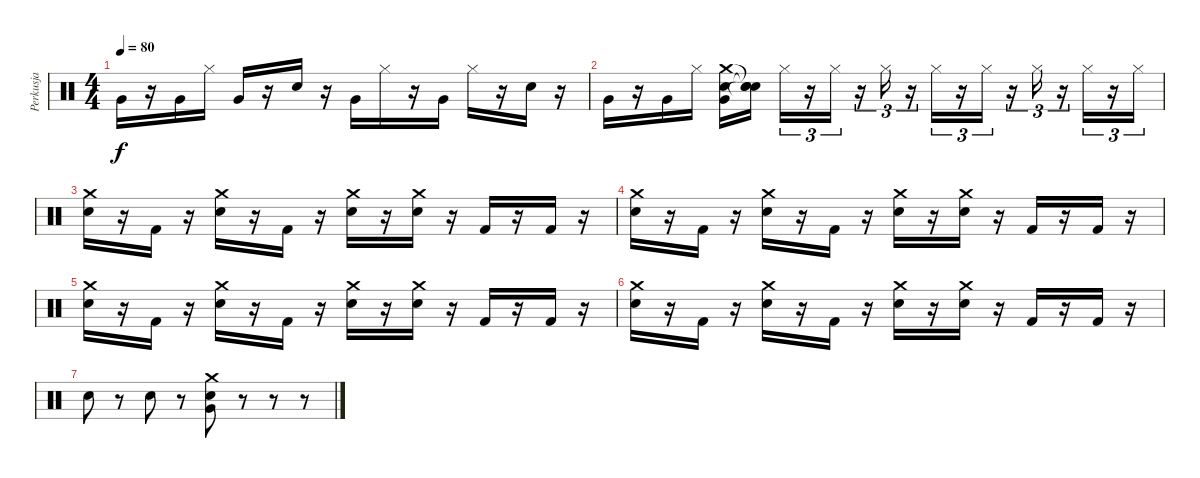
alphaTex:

\track ("Perkusja" "Perkusja") {instrument percussion}
\staff {score}
\articulation defaults
\ts (4 4)
\tempo 80
\clef neutral
\ks c "Very Low Tom (hit)".16{dy f}
r.16 "Very Low Tom (hit)".16 "Hi-Hat (closed)".16 "Very Low Tom (hit)".16 r.16 "Snare (hit) 2".16 r.16 "Very Low Tom (hit)".16 "Hi-Hat (closed)".16 r.16 "Very Low Tom (hit)".16 "Hi-Hat (closed)".16 r.16 "Snare (hit) 2".16 r.16 |
"Very Low Tom (hit)".16 r.16 "Very Low Tom (hit)".16 "Hi-Hat (closed)".16 ("Snare (hit) 2" "Very Low Tom (hit)" "Crash medium (hit)").16 ("Snare (hit)"{t} "Snare (hit)"{t} "Snare (hit)"{t}).16 "Hi-Hat (closed)".16{tu (3 2)} r.16{tu (3 2)} "Hi-Hat (closed)".16{tu (3 2)} r.16{tu (3 2)} "Hi-Hat (closed)".16{tu (3 2)} r.16{tu (3 2)} "Hi-Hat (closed)".16{tu (3 2)} r.16{tu (3 2)} "Hi-Hat (closed)".16{tu (3 2)} r.16{tu (3 2)} "Hi-Hat (closed)".16{tu (3 2)} r.16{tu (3 2)} "Hi-Hat (closed)".16{tu (3 2)} r.16{tu (3 2)} "Hi-Hat (closed)".16{tu (3 2)} |
("Snare (hit) 2" "Crash medium (hit)").16 r.16 "Kick (hit) 2".16 r.16 ("Snare (hit) 2" "Crash medium (hit)").16 r.16 "Kick (hit) 2".16 r.16 ("Snare (hit) 2" "Crash medium (hit)").16 r.16 ("Snare (hit) 2" "Crash medium (hit)").16 r.16 "Kick (hit) 2".16 r.16 "Kick (hit) 2".16 r.16 |
("Snare (hit) 2" "Crash medium (hit)").16 r.16 "Kick (hit) 2".16 r.16 ("Snare (hit) 2" "Crash medium (hit)").16 r.16 "Kick (hit) 2".16 r.16 ("Snare (hit) 2" "Crash medium (hit)").16 r.16 ("Snare (hit) 2" "Crash medium (hit)").16 r.16 "Kick (hit) 2".16 r.16 "Kick (hit) 2".16 r.16 |
("Snare (hit) 2" "Crash medium (hit)").16 r.16 "Kick (hit) 2".16 r.16 ("Snare (hit) 2" "Crash medium (hit)").16 r.16 "Kick (hit) 2".16 r.16 ("Snare (hit) 2" "Crash medium (hit)").16 r.16 ("Snare (hit) 2" "Crash medium (hit)").16 r.16 "Kick (hit) 2".16 r.16 "Kick (hit) 2".16 r.16 |
("Snare (hit) 2" "Crash medium (hit)").16 r.16 "Kick (hit) 2".16 r.16 ("Snare (hit) 2" "Crash medium (hit)").16 r.16 "Kick (hit) 2".16 r.16 ("Snare (hit) 2" "Crash medium (hit)").16 r.16 ("Snare (hit) 2" "Crash medium (hit)").16 r.16 "Kick (hit) 2".16 r.16 "Kick (hit) 2".16 r.16 |
"Snare (hit) 2".8 r.8 "Snare (hit) 2".8 r.8 ("Snare (hit) 2" "Very Low Tom (hit)" "Crash medium (hit)").8 r.8 r.8 r.8
